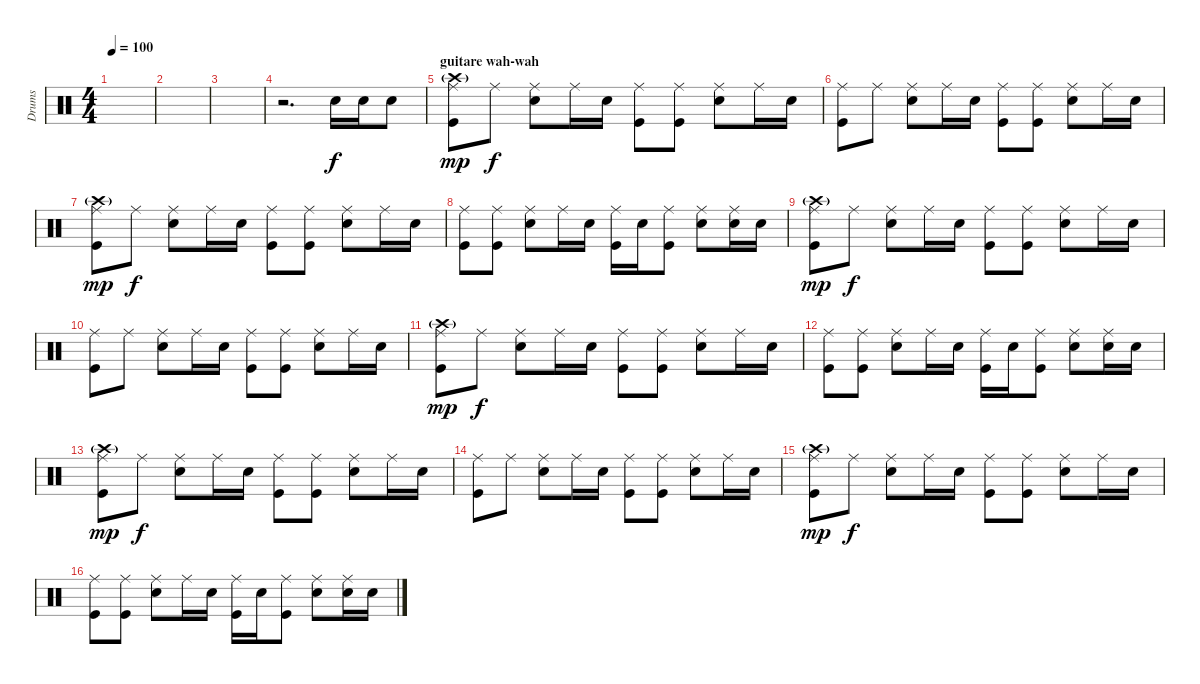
\track ("Drums" "Drums") {instrument percussion}
\staff {score}
\articulation defaults
\ts (4 4)
\tempo 100
\clef neutral
\ks c
|
|
|
r.2{d} "Snare (hit) 2".16 "Snare (hit) 2".16 "Snare (hit) 2".8 |
\section ("" "guitare wah-wah")
("Ride (middle)" "Crash high (hit)"{g} "Kick (hit)").8{dy mp} "Ride (middle)".8{dy f} ("Ride (middle)" "Snare (hit) 2").8 "Ride (middle)".16 "Snare (hit) 2".16 ("Ride (middle)" "Kick (hit)").8 ("Ride (middle)" "Kick (hit)").8 ("Ride (middle)" "Snare (hit) 2").8 "Ride (middle)".16 "Snare (hit) 2".16 |
("Ride (middle)" "Kick (hit)").8 "Ride (middle)".8 ("Ride (middle)" "Snare (hit) 2").8 "Ride (middle)".16 "Snare (hit) 2".16 ("Ride (middle)" "Kick (hit)").8 ("Ride (middle)" "Kick (hit)").8 ("Ride (middle)" "Snare (hit) 2").8 "Ride (middle)".16 "Snare (hit) 2".16 |
("Ride (middle)" "Crash high (hit)"{g} "Kick (hit)").8{dy mp} "Ride (middle)".8{dy f} ("Ride (middle)" "Snare (hit) 2").8 "Ride (middle)".16 "Snare (hit) 2".16 ("Ride (middle)" "Kick (hit)").8 ("Ride (middle)" "Kick (hit)").8 ("Ride (middle)" "Snare (hit) 2").8 "Ride (middle)".16 "Snare (hit) 2".16 |
("Ride (middle)" "Kick (hit)").8 ("Ride (middle)" "Kick (hit)").8 ("Ride (middle)" "Snare (hit) 2").8 "Ride (middle)".16 "Snare (hit) 2".16 ("Ride (middle)" "Kick (hit)").16 "Snare (hit) 2".16 ("Ride (middle)" "Kick (hit)").8 ("Ride (middle)" "Snare (hit) 2").8 ("Ride (middle)" "Snare (hit) 2").16 "Snare (hit) 2".16 |
("Ride (middle)" "Crash high (hit)"{g} "Kick (hit)").8{dy mp} "Ride (middle)".8{dy f} ("Ride (middle)" "Snare (hit) 2").8 "Ride (middle)".16 "Snare (hit) 2".16 ("Ride (middle)" "Kick (hit)").8 ("Ride (middle)" "Kick (hit)").8 ("Ride (middle)" "Snare (hit) 2").8 "Ride (middle)".16 "Snare (hit) 2".16 |
("Ride (middle)" "Kick (hit)").8 "Ride (middle)".8 ("Ride (middle)" "Snare (hit) 2").8 "Ride (middle)".16 "Snare (hit) 2".16 ("Ride (middle)" "Kick (hit)").8 ("Ride (middle)" "Kick (hit)").8 ("Ride (middle)" "Snare (hit) 2").8 "Ride (middle)".16 "Snare (hit) 2".16 |
("Ride (middle)" "Crash high (hit)"{g} "Kick (hit)").8{dy mp} "Ride (middle)".8{dy f} ("Ride (middle)" "Snare (hit) 2").8 "Ride (middle)".16 "Snare (hit) 2".16 ("Ride (middle)" "Kick (hit)").8 ("Ride (middle)" "Kick (hit)").8 ("Ride (middle)" "Snare (hit) 2").8 "Ride (middle)".16 "Snare (hit) 2".16 |
("Ride (middle)" "Kick (hit)").8 ("Ride (middle)" "Kick (hit)").8 ("Ride (middle)" "Snare (hit) 2").8 "Ride (middle)".16 "Snare (hit) 2".16 ("Ride (middle)" "Kick (hit)").16 "Snare (hit) 2".16 ("Ride (middle)" "Kick (hit)").8 ("Ride (middle)" "Snare (hit) 2").8 ("Ride (middle)" "Snare (hit) 2").16 "Snare (hit) 2".16 |
\section ("" "")
("Ride (middle)" "Crash high (hit)"{g} "Kick (hit)").8{dy mp} "Ride (middle)".8{dy f} ("Ride (middle)" "Snare (hit) 2").8 "Ride (middle)".16 "Snare (hit) 2".16 ("Ride (middle)" "Kick (hit)").8 ("Ride (middle)" "Kick (hit)").8 ("Ride (middle)" "Snare (hit) 2").8 "Ride (middle)".16 "Snare (hit) 2".16 |
("Ride (middle)" "Kick (hit)").8 "Ride (middle)".8 ("Ride (middle)" "Snare (hit) 2").8 "Ride (middle)".16 "Snare (hit) 2".16 ("Ride (middle)" "Kick (hit)").8 ("Ride (middle)" "Kick (hit)").8 ("Ride (middle)" "Snare (hit) 2").8 "Ride (middle)".16 "Snare (hit) 2".16 |
("Ride (middle)" "Crash high (hit)"{g} "Kick (hit)").8{dy mp} "Ride (middle)".8{dy f} ("Ride (middle)" "Snare (hit) 2").8 "Ride (middle)".16 "Snare (hit) 2".16 ("Ride (middle)" "Kick (hit)").8 ("Ride (middle)" "Kick (hit)").8 ("Ride (middle)" "Snare (hit) 2").8 "Ride (middle)".16 "Snare (hit) 2".16 |
("Ride (middle)" "Kick (hit)").8 ("Ride (middle)" "Kick (hit)").8 ("Ride (middle)" "Snare (hit) 2").8 "Ride (middle)".16 "Snare (hit) 2".16 ("Ride (middle)" "Kick (hit)").16 "Snare (hit) 2".16 ("Ride (middle)" "Kick (hit)").8 ("Ride (middle)" "Snare (hit) 2").8 ("Ride (middle)" "Snare (hit) 2").16 "Snare (hit) 2".16
